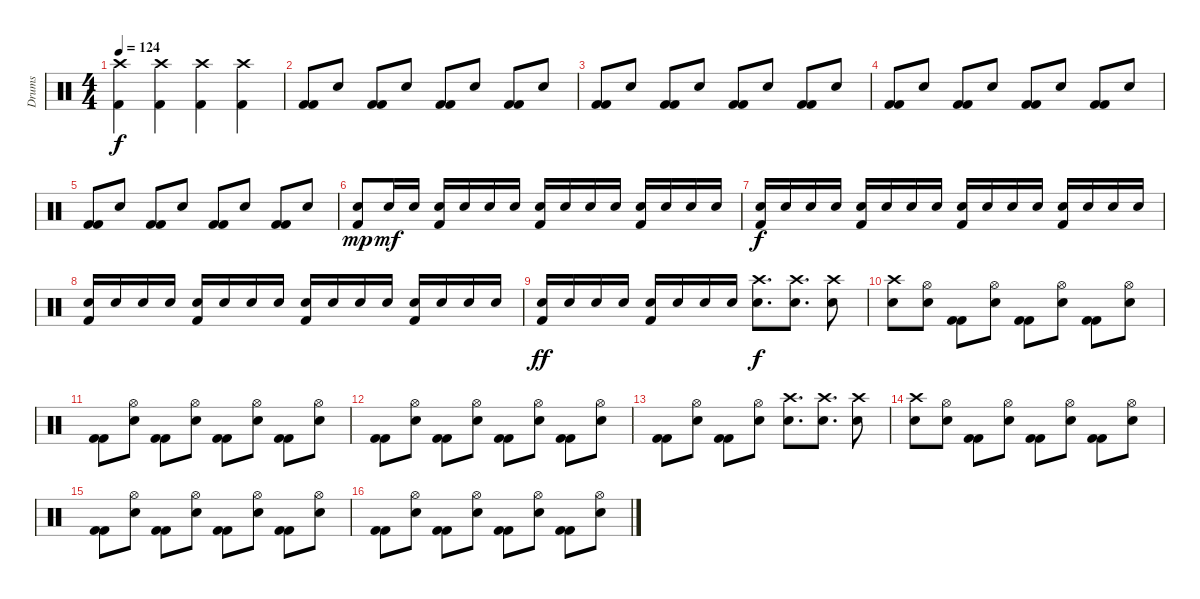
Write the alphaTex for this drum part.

\track ("Drums" "Drums") {instrument percussion}
\staff {score}
\articulation defaults
\ts (4 4)
\tempo 124
\clef neutral
\ks c
("Kick (hit) 2" "Crash high (hit)").4{dy f} ("Kick (hit) 2" "Crash high (hit)").4 ("Kick (hit) 2" "Crash high (hit)").4 ("Kick (hit) 2" "Crash high (hit)").4 |
("Kick (hit) 2" "Kick (hit) 2").8 "Hand Clap (hit)".8 ("Kick (hit) 2" "Kick (hit) 2").8 "Hand Clap (hit)".8 ("Kick (hit) 2" "Kick (hit) 2").8 "Hand Clap (hit)".8 ("Kick (hit) 2" "Kick (hit) 2").8 "Hand Clap (hit)".8 |
("Kick (hit) 2" "Kick (hit) 2").8 "Hand Clap (hit)".8 ("Kick (hit) 2" "Kick (hit) 2").8 "Hand Clap (hit)".8 ("Kick (hit) 2" "Kick (hit) 2").8 "Hand Clap (hit)".8 ("Kick (hit) 2" "Kick (hit) 2").8 "Hand Clap (hit)".8 |
("Kick (hit) 2" "Kick (hit) 2").8 "Hand Clap (hit)".8 ("Kick (hit) 2" "Kick (hit) 2").8 "Hand Clap (hit)".8 ("Kick (hit) 2" "Kick (hit) 2").8 "Hand Clap (hit)".8 ("Kick (hit) 2" "Kick (hit) 2").8 "Hand Clap (hit)".8 |
("Kick (hit) 2" "Kick (hit) 2").8 "Hand Clap (hit)".8 ("Kick (hit) 2" "Kick (hit) 2").8 "Hand Clap (hit)".8 ("Kick (hit) 2" "Kick (hit) 2").8 "Hand Clap (hit)".8 ("Kick (hit) 2" "Kick (hit) 2").8 "Hand Clap (hit)".8 |
("Snare (hit) 2" "Kick (hit) 2").8{dy mp} "Snare (hit) 2".16{dy mf} "Snare (hit) 2".16 ("Snare (hit) 2" "Kick (hit) 2").16 "Snare (hit) 2".16 "Snare (hit) 2".16 "Snare (hit) 2".16 ("Snare (hit) 2" "Kick (hit) 2").16 "Snare (hit) 2".16 "Snare (hit) 2".16 "Snare (hit) 2".16 ("Snare (hit) 2" "Kick (hit) 2").16 "Snare (hit) 2".16 "Snare (hit) 2".16 "Snare (hit) 2".16 |
("Snare (hit) 2" "Kick (hit) 2").16{dy f} "Snare (hit) 2".16 "Snare (hit) 2".16 "Snare (hit) 2".16 ("Snare (hit) 2" "Kick (hit) 2").16 "Snare (hit) 2".16 "Snare (hit) 2".16 "Snare (hit) 2".16 ("Snare (hit) 2" "Kick (hit) 2").16 "Snare (hit) 2".16 "Snare (hit) 2".16 "Snare (hit) 2".16 ("Snare (hit) 2" "Kick (hit) 2").16 "Snare (hit) 2".16 "Snare (hit) 2".16 "Snare (hit) 2".16 |
("Snare (hit) 2" "Kick (hit) 2").16 "Snare (hit) 2".16 "Snare (hit) 2".16 "Snare (hit) 2".16 ("Snare (hit) 2" "Kick (hit) 2").16 "Snare (hit) 2".16 "Snare (hit) 2".16 "Snare (hit) 2".16 ("Snare (hit) 2" "Kick (hit) 2").16 "Snare (hit) 2".16 "Snare (hit) 2".16 "Snare (hit) 2".16 ("Snare (hit) 2" "Kick (hit) 2").16 "Snare (hit) 2".16 "Snare (hit) 2".16 "Snare (hit) 2".16 |
("Snare (hit) 2" "Kick (hit) 2").16{dy ff} "Snare (hit) 2".16 "Snare (hit) 2".16 "Snare (hit) 2".16 ("Snare (hit) 2" "Kick (hit) 2").16 "Snare (hit) 2".16 "Snare (hit) 2".16 "Snare (hit) 2".16 ("Snare (hit) 2" "Crash high (hit)").8{d dy f} ("Snare (hit) 2" "Crash high (hit)").8{d} ("Snare (hit) 2" "Crash high (hit)").8 |
("Snare (hit) 2" "Crash high (hit)").8 ("Hand Clap (hit)" "Hi-Hat (open)").8 ("Kick (hit) 2" "Kick (hit) 2").8 ("Hand Clap (hit)" "Hi-Hat (open)").8 ("Kick (hit) 2" "Kick (hit) 2").8 ("Hand Clap (hit)" "Hi-Hat (open)").8 ("Kick (hit) 2" "Kick (hit) 2").8 ("Hand Clap (hit)" "Hi-Hat (open)").8 |
("Kick (hit) 2" "Kick (hit) 2").8 ("Hand Clap (hit)" "Hi-Hat (open)").8 ("Kick (hit) 2" "Kick (hit) 2").8 ("Hand Clap (hit)" "Hi-Hat (open)").8 ("Kick (hit) 2" "Kick (hit) 2").8 ("Hand Clap (hit)" "Hi-Hat (open)").8 ("Kick (hit) 2" "Kick (hit) 2").8 ("Hand Clap (hit)" "Hi-Hat (open)").8 |
("Kick (hit) 2" "Kick (hit) 2").8 ("Hand Clap (hit)" "Hi-Hat (open)").8 ("Kick (hit) 2" "Kick (hit) 2").8 ("Hand Clap (hit)" "Hi-Hat (open)").8 ("Kick (hit) 2" "Kick (hit) 2").8 ("Hand Clap (hit)" "Hi-Hat (open)").8 ("Kick (hit) 2" "Kick (hit) 2").8 ("Hand Clap (hit)" "Hi-Hat (open)").8 |
("Kick (hit) 2" "Kick (hit) 2").8 ("Hand Clap (hit)" "Hi-Hat (open)").8 ("Kick (hit) 2" "Kick (hit) 2").8 ("Hand Clap (hit)" "Hi-Hat (open)").8 ("Snare (hit) 2" "Crash high (hit)").8{d} ("Snare (hit) 2" "Crash high (hit)").8{d} ("Snare (hit) 2" "Crash high (hit)").8 |
("Snare (hit) 2" "Crash high (hit)").8 ("Hand Clap (hit)" "Hi-Hat (open)").8 ("Kick (hit) 2" "Kick (hit) 2").8 ("Hand Clap (hit)" "Hi-Hat (open)").8 ("Kick (hit) 2" "Kick (hit) 2").8 ("Hand Clap (hit)" "Hi-Hat (open)").8 ("Kick (hit) 2" "Kick (hit) 2").8 ("Hand Clap (hit)" "Hi-Hat (open)").8 |
("Kick (hit) 2" "Kick (hit) 2").8 ("Hand Clap (hit)" "Hi-Hat (open)").8 ("Kick (hit) 2" "Kick (hit) 2").8 ("Hand Clap (hit)" "Hi-Hat (open)").8 ("Kick (hit) 2" "Kick (hit) 2").8 ("Hand Clap (hit)" "Hi-Hat (open)").8 ("Kick (hit) 2" "Kick (hit) 2").8 ("Hand Clap (hit)" "Hi-Hat (open)").8 |
("Kick (hit) 2" "Kick (hit) 2").8 ("Hand Clap (hit)" "Hi-Hat (open)").8 ("Kick (hit) 2" "Kick (hit) 2").8 ("Hand Clap (hit)" "Hi-Hat (open)").8 ("Kick (hit) 2" "Kick (hit) 2").8 ("Hand Clap (hit)" "Hi-Hat (open)").8 ("Kick (hit) 2" "Kick (hit) 2").8 ("Hand Clap (hit)" "Hi-Hat (open)").8
